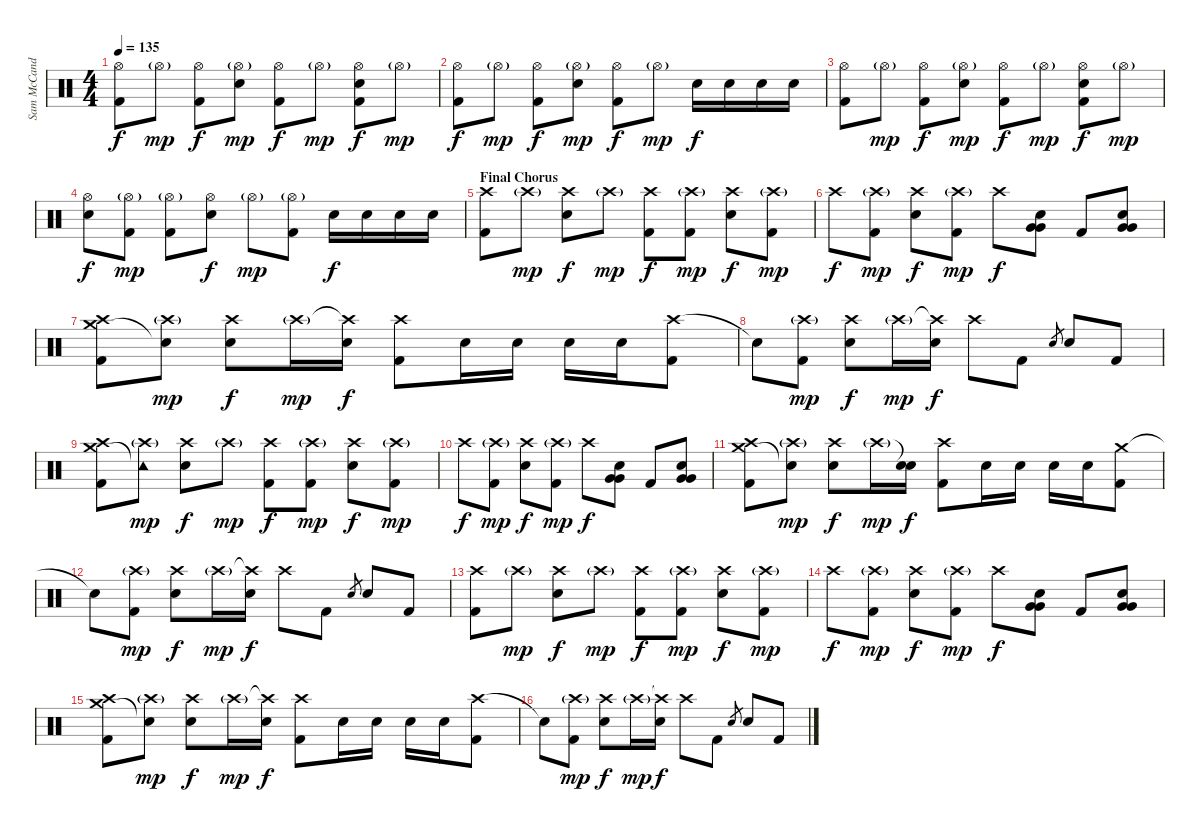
\track ("Sam McCandless (Drums)" "Sam McCand") {instrument percussion}
\staff {score}
\articulation defaults
\ts (4 4)
\tempo 135
\clef neutral
\ks c
("Hi-Hat (open)" "Kick (hit) 2").8{dy f} "Hi-Hat (open)"{g}.8{dy mp} ("Hi-Hat (open)" "Kick (hit) 2").8{dy f} ("Hi-Hat (open)"{g} "Electric Snare (hit)").8{dy mp} ("Hi-Hat (open)" "Kick (hit) 2").8{dy f} "Hi-Hat (open)"{g}.8{dy mp} ("Hi-Hat (open)" "Electric Snare (hit)" "Kick (hit) 2").8{dy f} "Hi-Hat (open)"{g}.8{dy mp} |
("Hi-Hat (open)" "Kick (hit) 2").8{dy f} "Hi-Hat (open)"{g}.8{dy mp} ("Hi-Hat (open)" "Kick (hit) 2").8{dy f} ("Hi-Hat (open)"{g} "Electric Snare (hit)").8{dy mp} ("Hi-Hat (open)" "Kick (hit) 2").8{dy f} "Hi-Hat (open)"{g}.8{dy mp} "Electric Snare (hit)".16{dy f} "Electric Snare (hit)".16 "Electric Snare (hit)".16 "Electric Snare (hit)".16 |
("Hi-Hat (open)" "Kick (hit) 2").8 "Hi-Hat (open)"{g}.8{dy mp} ("Hi-Hat (open)" "Kick (hit) 2").8{dy f} ("Hi-Hat (open)"{g} "Electric Snare (hit)").8{dy mp} ("Hi-Hat (open)" "Kick (hit) 2").8{dy f} "Hi-Hat (open)"{g}.8{dy mp} ("Hi-Hat (open)" "Electric Snare (hit)" "Kick (hit) 2").8{dy f} "Hi-Hat (open)"{g}.8{dy mp} |
("Hi-Hat (open)" "Electric Snare (hit)").8{dy f} ("Hi-Hat (open)"{g} "Kick (hit) 2").8{dy mp} ("Hi-Hat (open)"{g} "Kick (hit) 2").8 ("Hi-Hat (open)" "Electric Snare (hit)").8{dy f} "Hi-Hat (open)"{g}.8{dy mp} ("Hi-Hat (open)"{g} "Kick (hit) 2").8 "Electric Snare (hit)".16{dy f} "Electric Snare (hit)".16 "Electric Snare (hit)".16 "Electric Snare (hit)".16 |
\section ("" "Final Chorus")
("Crash high (hit)" "Kick (hit) 2").8 "Crash high (hit)"{g}.8{dy mp} ("Crash high (hit)" "Electric Snare (hit)").8{dy f} "Crash high (hit)"{g}.8{dy mp} ("Crash high (hit)" "Kick (hit) 2").8{dy f} ("Crash high (hit)"{g} "Kick (hit) 2").8{dy mp} ("Crash high (hit)" "Electric Snare (hit)").8{dy f} ("Crash high (hit)"{g} "Kick (hit) 2").8{dy mp} |
"Crash high (hit)".8{dy f} ("Crash high (hit)"{g} "Kick (hit) 2").8{dy mp} ("Crash high (hit)" "Electric Snare (hit)").8{dy f} ("Crash high (hit)"{g} "Kick (hit) 2").8{dy mp} "Crash high (hit)".8{dy f} ("Electric Snare (hit)" "Very Low Tom (hit)" "Very Low Tom (hit)").8 "Kick (hit) 2".8 ("Electric Snare (hit)" "Very Low Tom (hit)" "Very Low Tom (hit)").8 |
("Crash high (hit)" "Crash medium (hit)" "Kick (hit) 2").8 ("Crash high (hit)"{g} "Snare (hit)"{t}).8{dy mp} ("Crash high (hit)" "Electric Snare (hit)").8{dy f} "Crash high (hit)"{g}.16{dy mp} ("Crash high (hit)"{t} "Electric Snare (hit)").16{dy f} ("Crash high (hit)" "Kick (hit) 2").8 "Electric Snare (hit)".16 "Electric Snare (hit)".16 "Electric Snare (hit)".16 "Electric Snare (hit)".16 ("Crash high (hit)" "Kick (hit) 2").8 |
"Snare (hit)"{t}.8 ("Crash high (hit)"{g} "Kick (hit) 2").8{dy mp} ("Crash high (hit)" "Electric Snare (hit)").8{dy f} "Crash high (hit)"{g}.16{dy mp} ("Crash high (hit)"{t} "Electric Snare (hit)").16{dy f} "Crash high (hit)".8 "Kick (hit) 2".8 "Electric Snare (hit)".8{gr} "Electric Snare (hit)".8 "Kick (hit) 2".8 |
("Crash high (hit)" "Crash medium (hit)" "Kick (hit) 2").8 ("Crash high (hit)"{g} "Tambourine (hit)"{t}).8{dy mp} ("Crash high (hit)" "Electric Snare (hit)").8{dy f} "Crash high (hit)"{g}.8{dy mp} ("Crash high (hit)" "Kick (hit) 2").8{dy f} ("Crash high (hit)"{g} "Kick (hit) 2").8{dy mp} ("Crash high (hit)" "Electric Snare (hit)").8{dy f} ("Crash high (hit)"{g} "Kick (hit) 2").8{dy mp} |
"Crash high (hit)".8{dy f} ("Crash high (hit)"{g} "Kick (hit) 2").8{dy mp} ("Crash high (hit)" "Electric Snare (hit)").8{dy f} ("Crash high (hit)"{g} "Kick (hit) 2").8{dy mp} "Crash high (hit)".8{dy f} ("Electric Snare (hit)" "Very Low Tom (hit)" "Very Low Tom (hit)").8 "Kick (hit) 2".8 ("Electric Snare (hit)" "Very Low Tom (hit)" "Very Low Tom (hit)").8 |
("Crash high (hit)" "Crash medium (hit)" "Kick (hit) 2").8 ("Crash high (hit)"{g} "Snare (hit)"{t}).8{dy mp} ("Crash high (hit)" "Electric Snare (hit)").8{dy f} "Crash high (hit)"{g}.16{dy mp} ("Snare (hit)"{t} "Electric Snare (hit)").16{dy f} ("Crash high (hit)" "Kick (hit) 2").8 "Electric Snare (hit)".16 "Electric Snare (hit)".16 "Electric Snare (hit)".16 "Electric Snare (hit)".16 ("Crash medium (hit)" "Kick (hit) 2").8 |
"Snare (hit)"{t}.8 ("Crash high (hit)"{g} "Kick (hit) 2").8{dy mp} ("Crash high (hit)" "Electric Snare (hit)").8{dy f} "Crash high (hit)"{g}.16{dy mp} ("Crash high (hit)"{t} "Electric Snare (hit)").16{dy f} "Crash high (hit)".8 "Kick (hit) 2".8 "Electric Snare (hit)".8{gr} "Electric Snare (hit)".8 "Kick (hit) 2".8 |
("Crash high (hit)" "Kick (hit) 2").8 "Crash high (hit)"{g}.8{dy mp} ("Crash high (hit)" "Electric Snare (hit)").8{dy f} "Crash high (hit)"{g}.8{dy mp} ("Crash high (hit)" "Kick (hit) 2").8{dy f} ("Crash high (hit)"{g} "Kick (hit) 2").8{dy mp} ("Crash high (hit)" "Electric Snare (hit)").8{dy f} ("Crash high (hit)"{g} "Kick (hit) 2").8{dy mp} |
"Crash high (hit)".8{dy f} ("Crash high (hit)"{g} "Kick (hit) 2").8{dy mp} ("Crash high (hit)" "Electric Snare (hit)").8{dy f} ("Crash high (hit)"{g} "Kick (hit) 2").8{dy mp} "Crash high (hit)".8{dy f} ("Electric Snare (hit)" "Very Low Tom (hit)" "Very Low Tom (hit)").8 "Kick (hit) 2".8 ("Electric Snare (hit)" "Very Low Tom (hit)" "Very Low Tom (hit)").8 |
("Crash high (hit)" "Crash medium (hit)" "Kick (hit) 2").8 ("Crash high (hit)"{g} "Snare (hit)"{t}).8{dy mp} ("Crash high (hit)" "Electric Snare (hit)").8{dy f} "Crash high (hit)"{g}.16{dy mp} ("Crash high (hit)"{t} "Electric Snare (hit)").16{dy f} ("Crash high (hit)" "Kick (hit) 2").8 "Electric Snare (hit)".16 "Electric Snare (hit)".16 "Electric Snare (hit)".16 "Electric Snare (hit)".16 ("Crash high (hit)" "Kick (hit) 2").8 |
"Snare (hit)"{t}.8 ("Crash high (hit)"{g} "Kick (hit) 2").8{dy mp} ("Crash high (hit)" "Electric Snare (hit)").8{dy f} "Crash high (hit)"{g}.16{dy mp} ("Crash high (hit)"{t} "Electric Snare (hit)").16{dy f} "Crash high (hit)".8 "Kick (hit) 2".8 "Electric Snare (hit)".8{gr} "Electric Snare (hit)".8 "Kick (hit) 2".8
